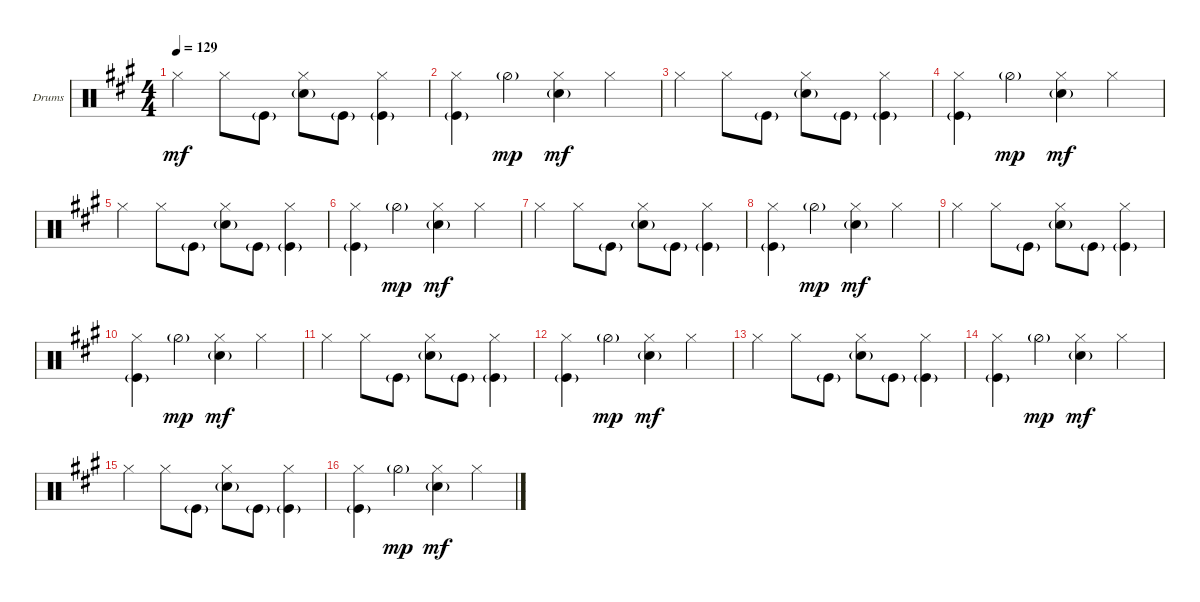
\defaultSystemsLayout 4
\bracketExtendMode groupsimilarinstruments
\firstSystemTrackNameOrientation horizontal
\otherSystemsTrackNameOrientation horizontal
\track ("Drumkit" "Drums") {instrument percussion}
\staff {score}
\articulation defaults
\ts (4 4)
\tempo 129
\clef neutral
\ks f#minor "Hi-Hat (closed)".4{dy mf} "Hi-Hat (closed)".8 "Kick (hit)"{g}.8
("Snare (hit) 2"{g} "Hi-Hat (closed)").8 "Kick (hit)"{g}.8 ("Hi-Hat (closed)" "Kick (hit)"{g}).4 |
("Kick (hit)"{g} "Hi-Hat (closed)").4 "Hi-Hat (half)"{g}.4{dy mp} ("Snare (hit) 2"{g} "Hi-Hat (closed)").4{dy mf} "Hi-Hat (closed)".4 |
"Hi-Hat (closed)".4 "Hi-Hat (closed)".8 "Kick (hit)"{g}.8 ("Snare (hit) 2"{g} "Hi-Hat (closed)").8 "Kick (hit)"{g}.8 ("Hi-Hat (closed)" "Kick (hit)"{g}).4 |
("Kick (hit)"{g} "Hi-Hat (closed)").4 "Hi-Hat (half)"{g}.4{dy mp} ("Snare (hit) 2"{g} "Hi-Hat (closed)").4{dy mf} "Hi-Hat (closed)".4 |
"Hi-Hat (closed)".4 "Hi-Hat (closed)".8 "Kick (hit)"{g}.8 ("Snare (hit) 2"{g} "Hi-Hat (closed)").8 "Kick (hit)"{g}.8 ("Hi-Hat (closed)" "Kick (hit)"{g}).4 |
("Kick (hit)"{g} "Hi-Hat (closed)").4 "Hi-Hat (half)"{g}.4{dy mp} ("Snare (hit) 2"{g} "Hi-Hat (closed)").4{dy mf} "Hi-Hat (closed)".4 |
"Hi-Hat (closed)".4 "Hi-Hat (closed)".8 "Kick (hit)"{g}.8 ("Snare (hit) 2"{g} "Hi-Hat (closed)").8 "Kick (hit)"{g}.8 ("Hi-Hat (closed)" "Kick (hit)"{g}).4 |
("Kick (hit)"{g} "Hi-Hat (closed)").4 "Hi-Hat (half)"{g}.4{dy mp} ("Snare (hit) 2"{g} "Hi-Hat (closed)").4{dy mf} "Hi-Hat (closed)".4 |
"Hi-Hat (closed)".4 "Hi-Hat (closed)".8 "Kick (hit)"{g}.8 ("Snare (hit) 2"{g} "Hi-Hat (closed)").8 "Kick (hit)"{g}.8 ("Hi-Hat (closed)" "Kick (hit)"{g}).4 |
("Kick (hit)"{g} "Hi-Hat (closed)").4 "Hi-Hat (half)"{g}.4{dy mp} ("Snare (hit) 2"{g} "Hi-Hat (closed)").4{dy mf} "Hi-Hat (closed)".4 |
"Hi-Hat (closed)".4 "Hi-Hat (closed)".8 "Kick (hit)"{g}.8 ("Snare (hit) 2"{g} "Hi-Hat (closed)").8 "Kick (hit)"{g}.8 ("Hi-Hat (closed)" "Kick (hit)"{g}).4 |
("Kick (hit)"{g} "Hi-Hat (closed)").4 "Hi-Hat (half)"{g}.4{dy mp} ("Snare (hit) 2"{g} "Hi-Hat (closed)").4{dy mf} "Hi-Hat (closed)".4 |
"Hi-Hat (closed)".4 "Hi-Hat (closed)".8 "Kick (hit)"{g}.8 ("Snare (hit) 2"{g} "Hi-Hat (closed)").8 "Kick (hit)"{g}.8 ("Hi-Hat (closed)" "Kick (hit)"{g}).4 |
("Kick (hit)"{g} "Hi-Hat (closed)").4 "Hi-Hat (half)"{g}.4{dy mp} ("Snare (hit) 2"{g} "Hi-Hat (closed)").4{dy mf} "Hi-Hat (closed)".4 |
"Hi-Hat (closed)".4 "Hi-Hat (closed)".8 "Kick (hit)"{g}.8 ("Snare (hit) 2"{g} "Hi-Hat (closed)").8 "Kick (hit)"{g}.8 ("Hi-Hat (closed)" "Kick (hit)"{g}).4 |
("Kick (hit)"{g} "Hi-Hat (closed)").4 "Hi-Hat (half)"{g}.4{dy mp} ("Snare (hit) 2"{g} "Hi-Hat (closed)").4{dy mf} "Hi-Hat (closed)".4
